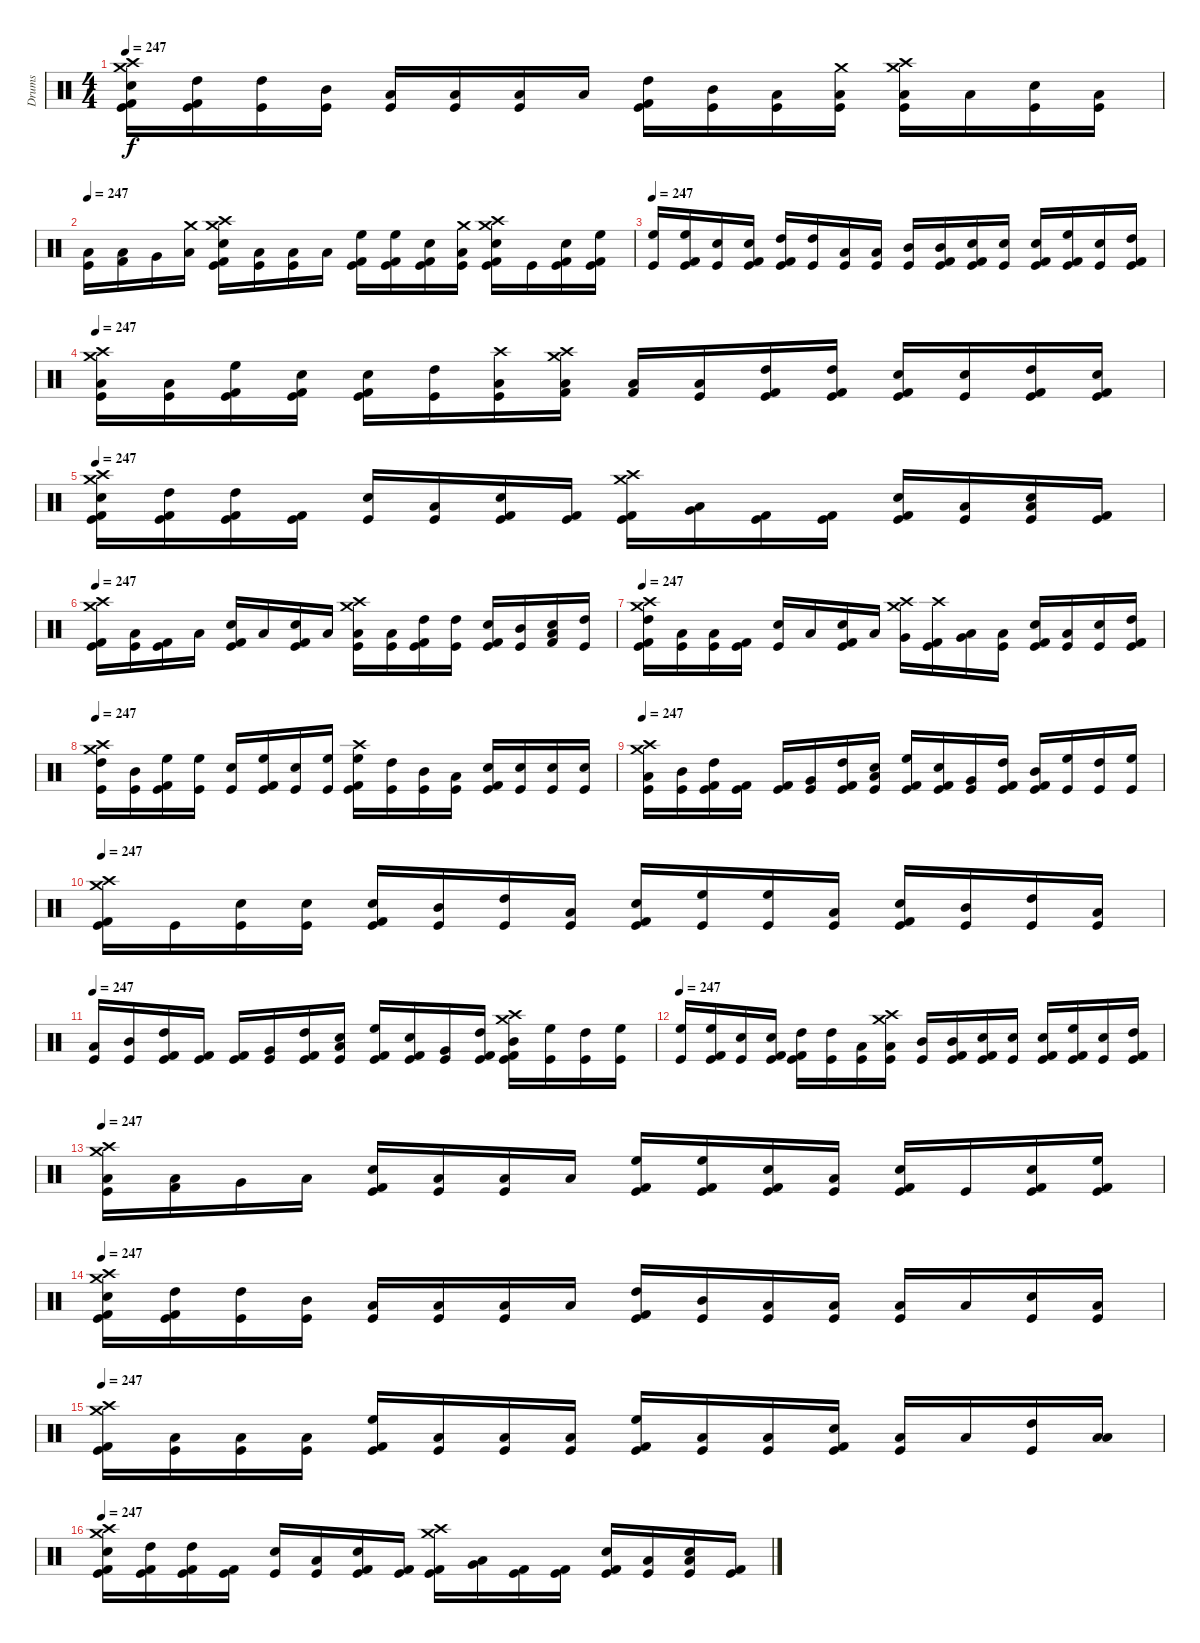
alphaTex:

\track ("Drums" "Drums") {instrument percussion}
\staff {score}
\articulation defaults
\ts (4 4)
\tempo 247
\clef neutral
\ks c
("Crash high (hit)" "Crash medium (hit)" "Snare (hit) 2" "Kick (hit) 2" "Kick (hit)").16{dy f} ("High Tom (hit)" "Kick (hit) 2" "Kick (hit)").16 ("High Tom (hit)" "Kick (hit)").16 ("Mid Tom (hit)" "Kick (hit)").16 ("Low Tom (hit)" "Kick (hit)").16 ("Low Tom (hit)" "Kick (hit)").16 ("Low Tom (hit)" "Kick (hit)").16 "Low Floor Tom (hit)".16 ("High Tom (hit)" "Kick (hit) 2" "Kick (hit)").16 ("Mid Tom (hit)" "Kick (hit)").16 ("Low Tom (hit)" "Kick (hit)").16 ("Crash medium (hit)" "Low Tom (hit)" "Kick (hit)").16 ("Crash high (hit)" "Crash medium (hit)" "Low Tom (hit)" "Kick (hit)").16 "Low Floor Tom (hit)".16 ("Snare (hit) 2" "Kick (hit)").16 ("Low Tom (hit)" "Kick (hit)").16 |
\tempo 247
("Low Tom (hit)" "Kick (hit)").16 ("Kick (hit) 2" "Low Floor Tom (hit)").16 "Very Low Tom (hit)".16 ("Crash medium (hit)" "Low Floor Tom (hit)").16 ("Crash high (hit)" "Crash medium (hit)" "Snare (hit) 2" "Kick (hit) 2" "Kick (hit)").16 ("Low Tom (hit)" "Kick (hit)").16 ("Low Tom (hit)" "Kick (hit)").16 "Low Floor Tom (hit)".16 ("High Floor Tom (hit)" "Kick (hit) 2" "Kick (hit)").16 ("High Floor Tom (hit)" "Kick (hit) 2" "Kick (hit)").16 ("Snare (hit) 2" "Kick (hit) 2" "Kick (hit)").16 ("Crash medium (hit)" "Low Tom (hit)" "Kick (hit)").16 ("Crash high (hit)" "Crash medium (hit)" "Snare (hit) 2" "Kick (hit) 2" "Kick (hit)").16 "Kick (hit)".16 ("Snare (hit) 2" "Kick (hit) 2" "Kick (hit)").16 ("High Floor Tom (hit)" "Kick (hit) 2" "Kick (hit)").16 |
\tempo 247
("High Floor Tom (hit)" "Kick (hit)").16 ("High Floor Tom (hit)" "Kick (hit) 2" "Kick (hit)").16 ("Snare (hit) 2" "Kick (hit)").16 ("Snare (hit) 2" "Kick (hit) 2" "Kick (hit)").16 ("High Tom (hit)" "Kick (hit) 2" "Kick (hit)").16 ("High Tom (hit)" "Kick (hit)").16 ("Low Tom (hit)" "Kick (hit)").16 ("Low Tom (hit)" "Kick (hit)").16 ("Mid Tom (hit)" "Kick (hit)").16 ("Mid Tom (hit)" "Kick (hit) 2" "Kick (hit)").16 ("Snare (hit) 2" "Kick (hit) 2" "Kick (hit)").16 ("Snare (hit) 2" "Kick (hit)").16 ("Snare (hit) 2" "Kick (hit) 2" "Kick (hit)").16 ("High Floor Tom (hit)" "Kick (hit) 2" "Kick (hit)").16 ("Snare (hit) 2" "Kick (hit)").16 ("High Tom (hit)" "Kick (hit) 2" "Kick (hit)").16 |
\tempo 247
("Crash high (hit)" "Crash medium (hit)" "Low Tom (hit)" "Kick (hit)").16 ("Low Tom (hit)" "Kick (hit)").16 ("High Floor Tom (hit)" "Kick (hit) 2" "Kick (hit)").16 ("Snare (hit) 2" "Kick (hit) 2" "Kick (hit)").16 ("Snare (hit) 2" "Kick (hit) 2" "Kick (hit)").16 ("High Tom (hit)" "Kick (hit)").16 ("Crash high (hit)" "Low Tom (hit)" "Kick (hit)").16 ("Crash high (hit)" "Crash medium (hit)" "Kick (hit) 2" "Low Floor Tom (hit)").16 ("Kick (hit) 2" "Low Floor Tom (hit)").16 ("Low Tom (hit)" "Kick (hit)").16 ("High Tom (hit)" "Kick (hit) 2" "Kick (hit)").16 ("High Tom (hit)" "Kick (hit) 2" "Kick (hit)").16 ("Snare (hit) 2" "Kick (hit) 2" "Kick (hit)").16 ("Snare (hit) 2" "Kick (hit)").16 ("High Tom (hit)" "Kick (hit) 2" "Kick (hit)").16 ("Snare (hit) 2" "Kick (hit) 2" "Kick (hit)").16 |
\tempo 247
("Crash high (hit)" "Crash medium (hit)" "Snare (hit) 2" "Kick (hit) 2" "Kick (hit)").16 ("High Tom (hit)" "Kick (hit) 2" "Kick (hit)").16 ("High Tom (hit)" "Kick (hit) 2" "Kick (hit)").16 ("Kick (hit) 2" "Kick (hit)").16 ("Snare (hit) 2" "Kick (hit)").16 ("Low Tom (hit)" "Kick (hit)").16 ("Snare (hit) 2" "Kick (hit) 2" "Kick (hit)").16 ("Kick (hit) 2" "Kick (hit)").16 ("Crash high (hit)" "Crash medium (hit)" "Kick (hit) 2" "Kick (hit)").16 ("Very Low Tom (hit)" "Low Floor Tom (hit)").16 ("Kick (hit) 2" "Kick (hit)").16 ("Kick (hit) 2" "Kick (hit)").16 ("Snare (hit) 2" "Kick (hit) 2" "Kick (hit)").16 ("Low Tom (hit)" "Kick (hit)").16 ("Snare (hit) 2" "Low Tom (hit)" "Kick (hit)").16 ("Kick (hit) 2" "Kick (hit)").16 |
\tempo 247
("Crash high (hit)" "Crash medium (hit)" "Kick (hit) 2" "Kick (hit)").16 ("Low Tom (hit)" "Kick (hit)").16 ("Kick (hit) 2" "Kick (hit)").16 "Low Floor Tom (hit)".16 ("Snare (hit) 2" "Kick (hit) 2" "Kick (hit)").16 "Low Floor Tom (hit)".16 ("Snare (hit) 2" "Kick (hit) 2" "Kick (hit)").16 "Low Floor Tom (hit)".16 ("Crash high (hit)" "Crash medium (hit)" "Low Tom (hit)" "Kick (hit)").16 ("Low Tom (hit)" "Kick (hit)").16 ("High Tom (hit)" "Kick (hit) 2" "Kick (hit)").16 ("High Tom (hit)" "Kick (hit)").16 ("Snare (hit) 2" "Kick (hit) 2" "Kick (hit)").16 ("Mid Tom (hit)" "Kick (hit)").16 ("Snare (hit) 2" "Kick (hit) 2" "Low Floor Tom (hit)").16 ("High Tom (hit)" "Kick (hit)").16 |
\tempo 247
("Crash high (hit)" "Crash medium (hit)" "High Tom (hit)" "Kick (hit) 2" "Kick (hit)").16 ("Low Tom (hit)" "Kick (hit)").16 ("Low Tom (hit)" "Kick (hit)").16 ("Kick (hit) 2" "Kick (hit)").16 ("Snare (hit) 2" "Kick (hit)").16 "Low Floor Tom (hit)".16 ("Snare (hit) 2" "Kick (hit) 2" "Kick (hit)").16 "Low Floor Tom (hit)".16 ("Crash high (hit)" "Crash medium (hit)" "Very Low Tom (hit)").16 ("Crash high (hit)" "Kick (hit) 2" "Kick (hit)").16 ("Very Low Tom (hit)" "Low Floor Tom (hit)").16 ("Low Tom (hit)" "Kick (hit)").16 ("Snare (hit) 2" "Kick (hit) 2" "Kick (hit)").16 ("Low Tom (hit)" "Kick (hit)").16 ("Snare (hit) 2" "Kick (hit)").16 ("High Tom (hit)" "Kick (hit) 2" "Kick (hit)").16 |
\tempo 247
("Crash high (hit)" "Crash medium (hit)" "High Tom (hit)" "Kick (hit)").16 ("Mid Tom (hit)" "Kick (hit)").16 ("High Floor Tom (hit)" "Kick (hit) 2" "Kick (hit)").16 ("High Floor Tom (hit)" "Kick (hit)").16 ("Snare (hit) 2" "Kick (hit)").16 ("High Floor Tom (hit)" "Kick (hit) 2" "Kick (hit)").16 ("Snare (hit) 2" "Kick (hit)").16 ("High Floor Tom (hit)" "Kick (hit)").16 ("Crash high (hit)" "High Floor Tom (hit)" "Kick (hit) 2" "Kick (hit)").16 ("High Tom (hit)" "Kick (hit)").16 ("Mid Tom (hit)" "Kick (hit)").16 ("Low Tom (hit)" "Kick (hit)").16 ("Snare (hit) 2" "Kick (hit) 2" "Kick (hit)").16 ("Snare (hit) 2" "Kick (hit)").16 ("Snare (hit) 2" "Kick (hit)").16 ("Snare (hit) 2" "Kick (hit)").16 |
\tempo 247
("Crash high (hit)" "Crash medium (hit)" "Low Tom (hit)" "Kick (hit)").16 ("Mid Tom (hit)" "Kick (hit)").16 ("High Tom (hit)" "Kick (hit) 2" "Kick (hit)").16 ("Kick (hit) 2" "Kick (hit)").16 ("Kick (hit) 2" "Kick (hit)").16 ("Very Low Tom (hit)" "Kick (hit)").16 ("High Tom (hit)" "Kick (hit) 2" "Kick (hit)").16 ("Snare (hit) 2" "Low Floor Tom (hit)" "Kick (hit)").16 ("High Floor Tom (hit)" "Kick (hit) 2" "Kick (hit)").16 ("Snare (hit) 2" "Kick (hit) 2" "Kick (hit)").16 ("Very Low Tom (hit)" "Kick (hit)").16 ("High Tom (hit)" "Kick (hit) 2" "Kick (hit)").16 ("Mid Tom (hit)" "Kick (hit) 2" "Kick (hit)").16 ("High Floor Tom (hit)" "Kick (hit)").16 ("High Tom (hit)" "Kick (hit)").16 ("High Floor Tom (hit)" "Kick (hit)").16 |
\tempo 247
("Crash high (hit)" "Crash medium (hit)" "Kick (hit) 2" "Kick (hit)").16 "Kick (hit)".16 ("Snare (hit) 2" "Kick (hit)").16 ("Snare (hit) 2" "Kick (hit)").16 ("Snare (hit) 2" "Kick (hit) 2" "Kick (hit)").16 ("Mid Tom (hit)" "Kick (hit)").16 ("High Tom (hit)" "Kick (hit)").16 ("Low Tom (hit)" "Kick (hit)").16 ("Snare (hit) 2" "Kick (hit) 2" "Kick (hit)").16 ("High Floor Tom (hit)" "Kick (hit)").16 ("High Floor Tom (hit)" "Kick (hit)").16 ("Low Tom (hit)" "Kick (hit)").16 ("Snare (hit) 2" "Kick (hit) 2" "Kick (hit)").16 ("Mid Tom (hit)" "Kick (hit)").16 ("High Tom (hit)" "Kick (hit)").16 ("Low Tom (hit)" "Kick (hit)").16 |
\tempo 247
("Low Tom (hit)" "Kick (hit)").16 ("Mid Tom (hit)" "Kick (hit)").16 ("High Tom (hit)" "Kick (hit) 2" "Kick (hit)").16 ("Kick (hit) 2" "Kick (hit)").16 ("Kick (hit) 2" "Kick (hit)").16 ("Very Low Tom (hit)" "Kick (hit)").16 ("High Tom (hit)" "Kick (hit) 2" "Kick (hit)").16 ("Snare (hit) 2" "Low Floor Tom (hit)" "Kick (hit)").16 ("High Floor Tom (hit)" "Kick (hit) 2" "Kick (hit)").16 ("Snare (hit) 2" "Kick (hit) 2" "Kick (hit)").16 ("Very Low Tom (hit)" "Kick (hit)").16 ("High Tom (hit)" "Kick (hit) 2" "Kick (hit)").16 ("Crash high (hit)" "Crash medium (hit)" "Mid Tom (hit)" "Kick (hit) 2" "Kick (hit)").16 ("High Floor Tom (hit)" "Kick (hit)").16 ("High Tom (hit)" "Kick (hit)").16 ("High Floor Tom (hit)" "Kick (hit)").16 |
\tempo 247
("High Floor Tom (hit)" "Kick (hit)").16 ("High Floor Tom (hit)" "Kick (hit) 2" "Kick (hit)").16 ("Snare (hit) 2" "Kick (hit)").16 ("Snare (hit) 2" "Kick (hit) 2" "Kick (hit)").16 ("High Tom (hit)" "Kick (hit) 2" "Kick (hit)").16 ("High Tom (hit)" "Kick (hit)").16 ("Low Tom (hit)" "Kick (hit)").16 ("Crash high (hit)" "Crash medium (hit)" "Low Tom (hit)" "Kick (hit)").16 ("Mid Tom (hit)" "Kick (hit)").16 ("Mid Tom (hit)" "Kick (hit) 2" "Kick (hit)").16 ("Snare (hit) 2" "Kick (hit) 2" "Kick (hit)").16 ("Snare (hit) 2" "Kick (hit)").16 ("Snare (hit) 2" "Kick (hit) 2" "Kick (hit)").16 ("High Floor Tom (hit)" "Kick (hit) 2" "Kick (hit)").16 ("Snare (hit) 2" "Kick (hit)").16 ("High Tom (hit)" "Kick (hit) 2" "Kick (hit)").16 |
\tempo 247
("Crash high (hit)" "Crash medium (hit)" "Low Tom (hit)" "Kick (hit)").16 ("Kick (hit) 2" "Low Floor Tom (hit)").16 "Very Low Tom (hit)".16 "Low Floor Tom (hit)".16 ("Snare (hit) 2" "Kick (hit) 2" "Kick (hit)").16 ("Low Tom (hit)" "Kick (hit)").16 ("Low Tom (hit)" "Kick (hit)").16 "Low Floor Tom (hit)".16 ("High Floor Tom (hit)" "Kick (hit) 2" "Kick (hit)").16 ("High Floor Tom (hit)" "Kick (hit) 2" "Kick (hit)").16 ("Snare (hit) 2" "Kick (hit) 2" "Kick (hit)").16 ("Low Tom (hit)" "Kick (hit)").16 ("Snare (hit) 2" "Kick (hit) 2" "Kick (hit)").16 "Kick (hit)".16 ("Snare (hit) 2" "Kick (hit) 2" "Kick (hit)").16 ("High Floor Tom (hit)" "Kick (hit) 2" "Kick (hit)").16 |
\tempo 247
("Crash high (hit)" "Crash medium (hit)" "Snare (hit) 2" "Kick (hit) 2" "Kick (hit)").16 ("High Tom (hit)" "Kick (hit) 2" "Kick (hit)").16 ("High Tom (hit)" "Kick (hit)").16 ("Mid Tom (hit)" "Kick (hit)").16 ("Low Tom (hit)" "Kick (hit)").16 ("Low Tom (hit)" "Kick (hit)").16 ("Low Tom (hit)" "Kick (hit)").16 "Low Floor Tom (hit)".16 ("High Tom (hit)" "Kick (hit) 2" "Kick (hit)").16 ("Mid Tom (hit)" "Kick (hit)").16 ("Low Tom (hit)" "Kick (hit)").16 ("Low Tom (hit)" "Kick (hit)").16 ("Low Tom (hit)" "Kick (hit)").16 "Low Floor Tom (hit)".16 ("Snare (hit) 2" "Kick (hit)").16 ("Low Tom (hit)" "Kick (hit)").16 |
\tempo 247
("Crash high (hit)" "Crash medium (hit)" "Kick (hit) 2" "Kick (hit)").16 ("Low Tom (hit)" "Kick (hit)").16 ("Low Tom (hit)" "Kick (hit)").16 ("Low Tom (hit)" "Kick (hit)").16 ("High Floor Tom (hit)" "Kick (hit) 2" "Kick (hit)").16 ("Low Tom (hit)" "Kick (hit)").16 ("Low Tom (hit)" "Kick (hit)").16 ("Low Tom (hit)" "Kick (hit)").16 ("High Floor Tom (hit)" "Kick (hit) 2" "Kick (hit)").16 ("Low Tom (hit)" "Kick (hit)").16 ("Low Tom (hit)" "Kick (hit)").16 ("Snare (hit) 2" "Kick (hit) 2" "Kick (hit)").16 ("Low Tom (hit)" "Kick (hit)").16 "Low Floor Tom (hit)".16 ("High Tom (hit)" "Kick (hit)").16 ("Low Tom (hit)" "Low Floor Tom (hit)").16 |
\tempo 247
("Crash high (hit)" "Crash medium (hit)" "Snare (hit) 2" "Kick (hit) 2" "Kick (hit)").16 ("High Tom (hit)" "Kick (hit) 2" "Kick (hit)").16 ("High Tom (hit)" "Kick (hit) 2" "Kick (hit)").16 ("Kick (hit) 2" "Kick (hit)").16 ("Snare (hit) 2" "Kick (hit)").16 ("Low Tom (hit)" "Kick (hit)").16 ("Snare (hit) 2" "Kick (hit) 2" "Kick (hit)").16 ("Kick (hit) 2" "Kick (hit)").16 ("Crash high (hit)" "Crash medium (hit)" "Kick (hit) 2" "Kick (hit)").16 ("Very Low Tom (hit)" "Low Floor Tom (hit)").16 ("Kick (hit) 2" "Kick (hit)").16 ("Kick (hit) 2" "Kick (hit)").16 ("Snare (hit) 2" "Kick (hit) 2" "Kick (hit)").16 ("Low Tom (hit)" "Kick (hit)").16 ("Snare (hit) 2" "Low Tom (hit)" "Kick (hit)").16 ("Kick (hit) 2" "Kick (hit)").16
